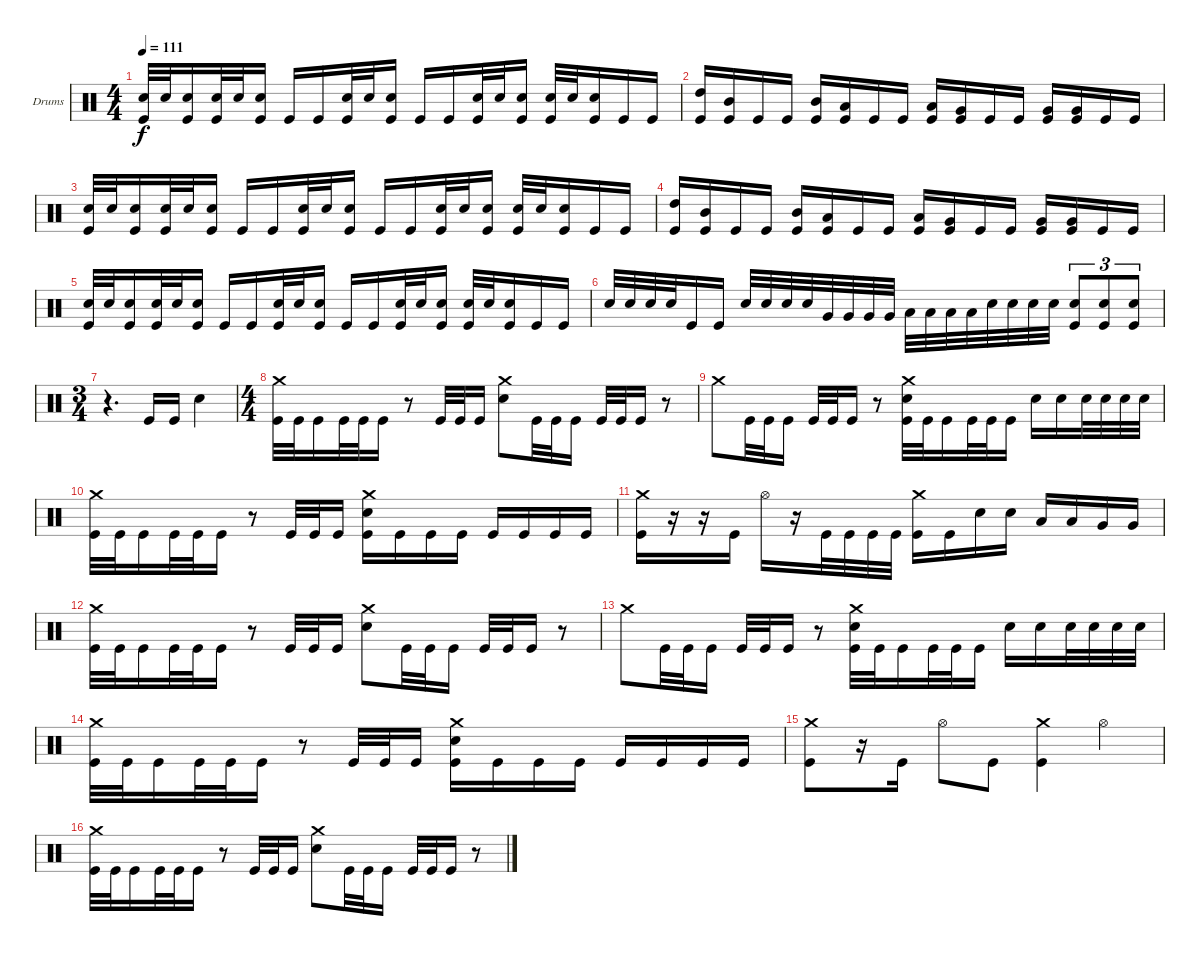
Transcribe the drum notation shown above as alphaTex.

\bracketExtendMode groupsimilarinstruments
\firstSystemTrackNameOrientation horizontal
\otherSystemsTrackNameOrientation horizontal
\track ("Drumkit" "Drums") {instrument percussion}
\staff {score}
\articulation defaults
\ts (4 4)
\tempo 111
\clef neutral
\ks c
("Snare (hit) 2" "Kick (hit)").32{dy f} "Snare (hit) 2".32 ("Snare (hit) 2" "Kick (hit)").16 ("Snare (hit) 2" "Kick (hit)").32 "Snare (hit) 2".32 ("Snare (hit) 2" "Kick (hit)").16 "Kick (hit)".16 "Kick (hit)".16 ("Snare (hit) 2" "Kick (hit)").32 "Snare (hit) 2".32 ("Snare (hit) 2" "Kick (hit)").16 "Kick (hit)".16 "Kick (hit)".16 ("Snare (hit) 2" "Kick (hit)").32 "Snare (hit) 2".32 ("Snare (hit) 2" "Kick (hit)").16 ("Snare (hit) 2" "Kick (hit)").32 "Snare (hit) 2".32 ("Snare (hit) 2" "Kick (hit)").16 "Kick (hit)".16 "Kick (hit)".16 |
("High Tom (hit)" "Kick (hit)").16 ("Mid Tom (hit)" "Kick (hit)").16 "Kick (hit)".16 "Kick (hit)".16 ("Mid Tom (hit)" "Kick (hit)").16 ("Low Tom (hit)" "Kick (hit)").16 "Kick (hit)".16 "Kick (hit)".16 ("Low Tom (hit)" "Kick (hit)").16 ("Very Low Tom (hit)" "Kick (hit)").16 "Kick (hit)".16 "Kick (hit)".16 ("Very Low Tom (hit)" "Kick (hit)").16 ("Very Low Tom (hit)" "Kick (hit)").16 "Kick (hit)".16 "Kick (hit)".16 |
("Snare (hit) 2" "Kick (hit)").32 "Snare (hit) 2".32 ("Snare (hit) 2" "Kick (hit)").16 ("Snare (hit) 2" "Kick (hit)").32 "Snare (hit) 2".32 ("Snare (hit) 2" "Kick (hit)").16 "Kick (hit)".16 "Kick (hit)".16 ("Snare (hit) 2" "Kick (hit)").32 "Snare (hit) 2".32 ("Snare (hit) 2" "Kick (hit)").16 "Kick (hit)".16 "Kick (hit)".16 ("Snare (hit) 2" "Kick (hit)").32 "Snare (hit) 2".32 ("Snare (hit) 2" "Kick (hit)").16 ("Snare (hit) 2" "Kick (hit)").32 "Snare (hit) 2".32 ("Snare (hit) 2" "Kick (hit)").16 "Kick (hit)".16 "Kick (hit)".16 |
("High Tom (hit)" "Kick (hit)").16 ("Mid Tom (hit)" "Kick (hit)").16 "Kick (hit)".16 "Kick (hit)".16 ("Mid Tom (hit)" "Kick (hit)").16 ("Low Tom (hit)" "Kick (hit)").16 "Kick (hit)".16 "Kick (hit)".16 ("Low Tom (hit)" "Kick (hit)").16 ("Very Low Tom (hit)" "Kick (hit)").16 "Kick (hit)".16 "Kick (hit)".16 ("Very Low Tom (hit)" "Kick (hit)").16 ("Very Low Tom (hit)" "Kick (hit)").16 "Kick (hit)".16 "Kick (hit)".16 |
("Snare (hit) 2" "Kick (hit)").32 "Snare (hit) 2".32 ("Snare (hit) 2" "Kick (hit)").16 ("Snare (hit) 2" "Kick (hit)").32 "Snare (hit) 2".32 ("Snare (hit) 2" "Kick (hit)").16 "Kick (hit)".16 "Kick (hit)".16 ("Snare (hit) 2" "Kick (hit)").32 "Snare (hit) 2".32 ("Snare (hit) 2" "Kick (hit)").16 "Kick (hit)".16 "Kick (hit)".16 ("Snare (hit) 2" "Kick (hit)").32 "Snare (hit) 2".32 ("Snare (hit) 2" "Kick (hit)").16 ("Snare (hit) 2" "Kick (hit)").32 "Snare (hit) 2".32 ("Snare (hit) 2" "Kick (hit)").16 "Kick (hit)".16 "Kick (hit)".16 |
"Snare (hit) 2".32 "Snare (hit) 2".32 "Snare (hit) 2".32 "Snare (hit) 2".32 "Kick (hit)".16 "Kick (hit)".16 "Snare (hit) 2".32 "Snare (hit) 2".32 "Snare (hit) 2".32 "Snare (hit) 2".32 "Very Low Tom (hit)".32 "Very Low Tom (hit)".32 "Very Low Tom (hit)".32 "Very Low Tom (hit)".32 "Low Tom (hit)".32 "Low Tom (hit)".32 "Low Tom (hit)".32 "Low Tom (hit)".32 "Snare (hit) 2".32 "Snare (hit) 2".32 "Snare (hit) 2".32 "Snare (hit) 2".32 ("Snare (hit) 2" "Kick (hit)").8{tu (3 2)} ("Snare (hit) 2" "Kick (hit)").8{tu (3 2)} ("Snare (hit) 2" "Kick (hit)").8{tu (3 2)} |
\ts (3 4)
\beaming (8 2 2 2)
r.4{d} "Kick (hit)".16 "Kick (hit)".16 "Snare (hit) 2".4 |
\ts (4 4)
\beaming (8 2 2 2 2)
("Crash medium (hit)" "Kick (hit)").32 "Kick (hit)".32 "Kick (hit)".16 "Kick (hit)".32 "Kick (hit)".32 "Kick (hit)".16 r.8 "Kick (hit)".32 "Kick (hit)".32 "Kick (hit)".16 ("Crash medium (hit)" "Snare (hit) 2").8 "Kick (hit)".32 "Kick (hit)".32 "Kick (hit)".16 "Kick (hit)".32 "Kick (hit)".32 "Kick (hit)".16 r.8 |
"Crash medium (hit)".8 "Kick (hit)".32 "Kick (hit)".32 "Kick (hit)".16 "Kick (hit)".32 "Kick (hit)".32 "Kick (hit)".16 r.8 ("Crash medium (hit)" "Snare (hit) 2" "Kick (hit)").32 "Kick (hit)".32 "Kick (hit)".16 "Kick (hit)".32 "Kick (hit)".32 "Kick (hit)".16 "Snare (hit) 2".16 "Snare (hit) 2".16 "Snare (hit) 2".32 "Snare (hit) 2".32 "Snare (hit) 2".32 "Snare (hit) 2".32 |
("Crash medium (hit)" "Kick (hit)").32 "Kick (hit)".32 "Kick (hit)".16 "Kick (hit)".32 "Kick (hit)".32 "Kick (hit)".16 r.8 "Kick (hit)".32 "Kick (hit)".32 "Kick (hit)".16 ("Crash medium (hit)" "Snare (hit) 2" "Kick (hit)").16 "Kick (hit)".16 "Kick (hit)".16 "Kick (hit)".16 "Kick (hit)".16 "Kick (hit)".16 "Kick (hit)".16 "Kick (hit)".16 |
("Crash medium (hit)" "Kick (hit)").16 r.16 r.16 "Kick (hit)".16 "Hi-Hat (open)".16 r.16 "Kick (hit)".32 "Kick (hit)".32 "Kick (hit)".32 "Kick (hit)".32 ("Crash medium (hit)" "Kick (hit)").16 "Kick (hit)".16 "Snare (hit) 2".16 "Snare (hit) 2".16 "Low Tom (hit)".16 "Low Tom (hit)".16 "Very Low Tom (hit)".16 "Very Low Tom (hit)".16 |
("Crash medium (hit)" "Kick (hit)").32 "Kick (hit)".32 "Kick (hit)".16 "Kick (hit)".32 "Kick (hit)".32 "Kick (hit)".16 r.8 "Kick (hit)".32 "Kick (hit)".32 "Kick (hit)".16 ("Crash medium (hit)" "Snare (hit) 2").8 "Kick (hit)".32 "Kick (hit)".32 "Kick (hit)".16 "Kick (hit)".32 "Kick (hit)".32 "Kick (hit)".16 r.8 |
"Crash medium (hit)".8 "Kick (hit)".32 "Kick (hit)".32 "Kick (hit)".16 "Kick (hit)".32 "Kick (hit)".32 "Kick (hit)".16 r.8 ("Crash medium (hit)" "Snare (hit) 2" "Kick (hit)").32 "Kick (hit)".32 "Kick (hit)".16 "Kick (hit)".32 "Kick (hit)".32 "Kick (hit)".16 "Snare (hit) 2".16 "Snare (hit) 2".16 "Snare (hit) 2".32 "Snare (hit) 2".32 "Snare (hit) 2".32 "Snare (hit) 2".32 |
("Crash medium (hit)" "Kick (hit)").32 "Kick (hit)".32 "Kick (hit)".16 "Kick (hit)".32 "Kick (hit)".32 "Kick (hit)".16 r.8 "Kick (hit)".32 "Kick (hit)".32 "Kick (hit)".16 ("Crash medium (hit)" "Snare (hit) 2" "Kick (hit)").16 "Kick (hit)".16 "Kick (hit)".16 "Kick (hit)".16 "Kick (hit)".16 "Kick (hit)".16 "Kick (hit)".16 "Kick (hit)".16 |
("Crash medium (hit)" "Kick (hit)").8 r.16 "Kick (hit)".16 "Hi-Hat (open)".8 "Kick (hit)".8 ("Crash medium (hit)" "Kick (hit)").4 "Hi-Hat (open)".4 |
("Crash medium (hit)" "Kick (hit)").32 "Kick (hit)".32 "Kick (hit)".16 "Kick (hit)".32 "Kick (hit)".32 "Kick (hit)".16 r.8 "Kick (hit)".32 "Kick (hit)".32 "Kick (hit)".16 ("Crash medium (hit)" "Snare (hit) 2").8 "Kick (hit)".32 "Kick (hit)".32 "Kick (hit)".16 "Kick (hit)".32 "Kick (hit)".32 "Kick (hit)".16 r.8
